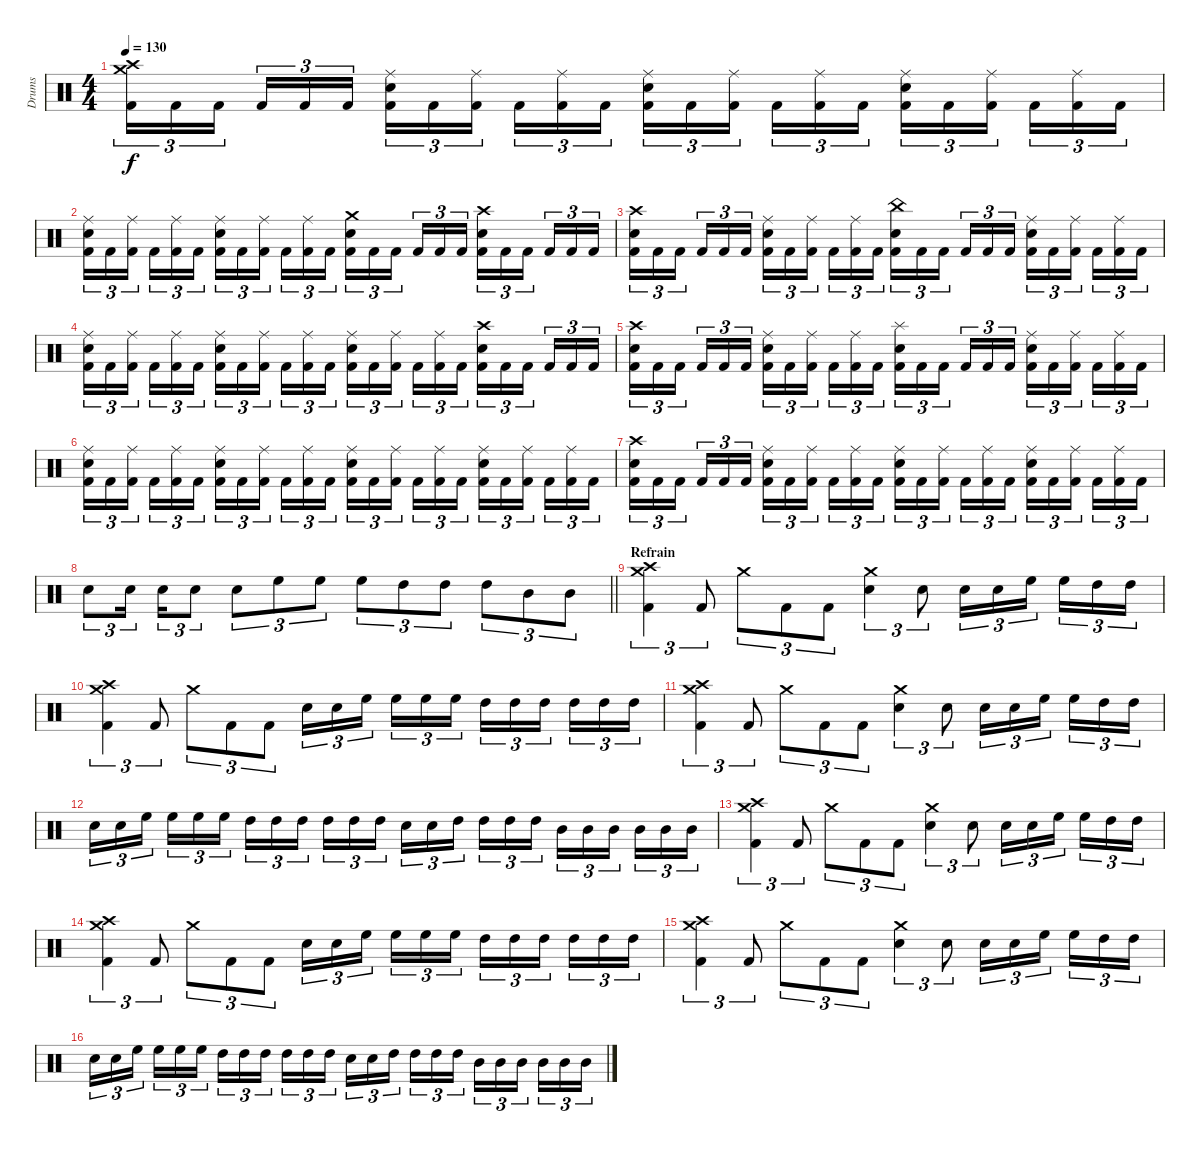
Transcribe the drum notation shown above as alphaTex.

\track ("Drums" "Drums") {instrument percussion}
\staff {score}
\articulation defaults
\ts (4 4)
\tempo 130
\clef neutral
\ks c
("Crash medium (hit)" "Crash high (hit)" "Kick (hit) 2").16{tu (3 2) dy f} "Kick (hit) 2".16{tu (3 2)} "Kick (hit) 2".16{tu (3 2) beam splitsecondary} "Kick (hit) 2".16{tu (3 2)} "Kick (hit) 2".16{tu (3 2)} "Kick (hit) 2".16{tu (3 2)} ("Ride (middle)" "Electric Snare (hit)" "Kick (hit) 2").16{tu (3 2)} "Kick (hit) 2".16{tu (3 2)} ("Ride (middle)" "Kick (hit) 2").16{tu (3 2) beam splitsecondary} "Kick (hit) 2".16{tu (3 2)} ("Ride (middle)" "Kick (hit) 2").16{tu (3 2)} "Kick (hit) 2".16{tu (3 2)} ("Ride (middle)" "Electric Snare (hit)" "Kick (hit) 2").16{tu (3 2)} "Kick (hit) 2".16{tu (3 2)} ("Ride (middle)" "Kick (hit) 2").16{tu (3 2) beam splitsecondary} "Kick (hit) 2".16{tu (3 2)} ("Ride (middle)" "Kick (hit) 2").16{tu (3 2)} "Kick (hit) 2".16{tu (3 2)} ("Ride (middle)" "Electric Snare (hit)" "Kick (hit) 2").16{tu (3 2)} "Kick (hit) 2".16{tu (3 2)} ("Ride (middle)" "Kick (hit) 2").16{tu (3 2) beam splitsecondary} "Kick (hit) 2".16{tu (3 2)} ("Ride (middle)" "Kick (hit) 2").16{tu (3 2)} "Kick (hit) 2".16{tu (3 2)} |
("Ride (middle)" "Electric Snare (hit)" "Kick (hit) 2").16{tu (3 2)} "Kick (hit) 2".16{tu (3 2)} ("Ride (middle)" "Kick (hit) 2").16{tu (3 2) beam splitsecondary} "Kick (hit) 2".16{tu (3 2)} ("Ride (middle)" "Kick (hit) 2").16{tu (3 2)} "Kick (hit) 2".16{tu (3 2)} ("Ride (middle)" "Electric Snare (hit)" "Kick (hit) 2").16{tu (3 2)} "Kick (hit) 2".16{tu (3 2)} ("Ride (middle)" "Kick (hit) 2").16{tu (3 2) beam splitsecondary} "Kick (hit) 2".16{tu (3 2)} ("Ride (middle)" "Kick (hit) 2").16{tu (3 2)} "Kick (hit) 2".16{tu (3 2)} ("Crash medium (hit)" "Electric Snare (hit)" "Kick (hit) 2").16{tu (3 2)} "Kick (hit) 2".16{tu (3 2)} "Kick (hit) 2".16{tu (3 2) beam splitsecondary} "Kick (hit) 2".16{tu (3 2)} "Kick (hit) 2".16{tu (3 2)} "Kick (hit) 2".16{tu (3 2)} ("Crash high (hit)" "Electric Snare (hit)" "Kick (hit) 2").16{tu (3 2)} "Kick (hit) 2".16{tu (3 2)} "Kick (hit) 2".16{tu (3 2) beam splitsecondary} "Kick (hit) 2".16{tu (3 2)} "Kick (hit) 2".16{tu (3 2)} "Kick (hit) 2".16{tu (3 2)} |
("Crash high (hit)" "Electric Snare (hit)" "Kick (hit) 2").16{tu (3 2)} "Kick (hit) 2".16{tu (3 2)} "Kick (hit) 2".16{tu (3 2) beam splitsecondary} "Kick (hit) 2".16{tu (3 2)} "Kick (hit) 2".16{tu (3 2)} "Kick (hit) 2".16{tu (3 2)} ("Ride (middle)" "Electric Snare (hit)" "Kick (hit) 2").16{tu (3 2)} "Kick (hit) 2".16{tu (3 2)} ("Ride (middle)" "Kick (hit) 2").16{tu (3 2) beam splitsecondary} "Kick (hit) 2".16{tu (3 2)} ("Ride (middle)" "Kick (hit) 2").16{tu (3 2)} "Kick (hit) 2".16{tu (3 2)} ("China (hit)" "Electric Snare (hit)" "Kick (hit) 2").16{tu (3 2)} "Kick (hit) 2".16{tu (3 2)} "Kick (hit) 2".16{tu (3 2) beam splitsecondary} "Kick (hit) 2".16{tu (3 2)} "Kick (hit) 2".16{tu (3 2)} "Kick (hit) 2".16{tu (3 2)} ("Ride (middle)" "Electric Snare (hit)" "Kick (hit) 2").16{tu (3 2)} "Kick (hit) 2".16{tu (3 2)} ("Ride (middle)" "Kick (hit) 2").16{tu (3 2) beam splitsecondary} "Kick (hit) 2".16{tu (3 2)} ("Ride (middle)" "Kick (hit) 2").16{tu (3 2)} "Kick (hit) 2".16{tu (3 2)} |
("Ride (middle)" "Electric Snare (hit)" "Kick (hit) 2").16{tu (3 2)} "Kick (hit) 2".16{tu (3 2)} ("Ride (middle)" "Kick (hit) 2").16{tu (3 2) beam splitsecondary} "Kick (hit) 2".16{tu (3 2)} ("Ride (middle)" "Kick (hit) 2").16{tu (3 2)} "Kick (hit) 2".16{tu (3 2)} ("Ride (middle)" "Electric Snare (hit)" "Kick (hit) 2").16{tu (3 2)} "Kick (hit) 2".16{tu (3 2)} ("Ride (middle)" "Kick (hit) 2").16{tu (3 2) beam splitsecondary} "Kick (hit) 2".16{tu (3 2)} ("Ride (middle)" "Kick (hit) 2").16{tu (3 2)} "Kick (hit) 2".16{tu (3 2)} ("Ride (middle)" "Electric Snare (hit)" "Kick (hit) 2").16{tu (3 2)} "Kick (hit) 2".16{tu (3 2)} ("Ride (middle)" "Kick (hit) 2").16{tu (3 2) beam splitsecondary} "Kick (hit) 2".16{tu (3 2)} ("Ride (middle)" "Kick (hit) 2").16{tu (3 2)} "Kick (hit) 2".16{tu (3 2)} ("Crash high (hit)" "Electric Snare (hit)" "Kick (hit) 2").16{tu (3 2)} "Kick (hit) 2".16{tu (3 2)} "Kick (hit) 2".16{tu (3 2) beam splitsecondary} "Kick (hit) 2".16{tu (3 2)} "Kick (hit) 2".16{tu (3 2)} "Kick (hit) 2".16{tu (3 2)} |
("Crash high (hit)" "Electric Snare (hit)" "Kick (hit) 2").16{tu (3 2)} "Kick (hit) 2".16{tu (3 2)} "Kick (hit) 2".16{tu (3 2) beam splitsecondary} "Kick (hit) 2".16{tu (3 2)} "Kick (hit) 2".16{tu (3 2)} "Kick (hit) 2".16{tu (3 2)} ("Ride (middle)" "Electric Snare (hit)" "Kick (hit) 2").16{tu (3 2)} "Kick (hit) 2".16{tu (3 2)} ("Ride (middle)" "Kick (hit) 2").16{tu (3 2) beam splitsecondary} "Kick (hit) 2".16{tu (3 2)} ("Ride (middle)" "Kick (hit) 2").16{tu (3 2)} "Kick (hit) 2".16{tu (3 2)} ("Splash (hit)" "Electric Snare (hit)" "Kick (hit) 2").16{tu (3 2)} "Kick (hit) 2".16{tu (3 2)} "Kick (hit) 2".16{tu (3 2) beam splitsecondary} "Kick (hit) 2".16{tu (3 2)} "Kick (hit) 2".16{tu (3 2)} "Kick (hit) 2".16{tu (3 2)} ("Ride (middle)" "Electric Snare (hit)" "Kick (hit) 2").16{tu (3 2)} "Kick (hit) 2".16{tu (3 2)} ("Ride (middle)" "Kick (hit) 2").16{tu (3 2) beam splitsecondary} "Kick (hit) 2".16{tu (3 2)} ("Ride (middle)" "Kick (hit) 2").16{tu (3 2)} "Kick (hit) 2".16{tu (3 2)} |
("Ride (middle)" "Electric Snare (hit)" "Kick (hit) 2").16{tu (3 2)} "Kick (hit) 2".16{tu (3 2)} ("Ride (middle)" "Kick (hit) 2").16{tu (3 2) beam splitsecondary} "Kick (hit) 2".16{tu (3 2)} ("Ride (middle)" "Kick (hit) 2").16{tu (3 2)} "Kick (hit) 2".16{tu (3 2)} ("Ride (middle)" "Electric Snare (hit)" "Kick (hit) 2").16{tu (3 2)} "Kick (hit) 2".16{tu (3 2)} ("Ride (middle)" "Kick (hit) 2").16{tu (3 2) beam splitsecondary} "Kick (hit) 2".16{tu (3 2)} ("Ride (middle)" "Kick (hit) 2").16{tu (3 2)} "Kick (hit) 2".16{tu (3 2)} ("Ride (middle)" "Electric Snare (hit)" "Kick (hit) 2").16{tu (3 2)} "Kick (hit) 2".16{tu (3 2)} ("Ride (middle)" "Kick (hit) 2").16{tu (3 2) beam splitsecondary} "Kick (hit) 2".16{tu (3 2)} ("Ride (middle)" "Kick (hit) 2").16{tu (3 2)} "Kick (hit) 2".16{tu (3 2)} ("Ride (middle)" "Electric Snare (hit)" "Kick (hit) 2").16{tu (3 2)} "Kick (hit) 2".16{tu (3 2)} ("Ride (middle)" "Kick (hit) 2").16{tu (3 2) beam splitsecondary} "Kick (hit) 2".16{tu (3 2)} ("Ride (middle)" "Kick (hit) 2").16{tu (3 2)} "Kick (hit) 2".16{tu (3 2)} |
("Crash high (hit)" "Electric Snare (hit)" "Kick (hit) 2").16{tu (3 2)} "Kick (hit) 2".16{tu (3 2)} "Kick (hit) 2".16{tu (3 2) beam splitsecondary} "Kick (hit) 2".16{tu (3 2)} "Kick (hit) 2".16{tu (3 2)} "Kick (hit) 2".16{tu (3 2)} ("Ride (middle)" "Electric Snare (hit)" "Kick (hit) 2").16{tu (3 2)} "Kick (hit) 2".16{tu (3 2)} ("Ride (middle)" "Kick (hit) 2").16{tu (3 2) beam splitsecondary} "Kick (hit) 2".16{tu (3 2)} ("Ride (middle)" "Kick (hit) 2").16{tu (3 2)} "Kick (hit) 2".16{tu (3 2)} ("Ride (middle)" "Electric Snare (hit)" "Kick (hit) 2").16{tu (3 2)} "Kick (hit) 2".16{tu (3 2)} ("Ride (middle)" "Kick (hit) 2").16{tu (3 2) beam splitsecondary} "Kick (hit) 2".16{tu (3 2)} ("Ride (middle)" "Kick (hit) 2").16{tu (3 2)} "Kick (hit) 2".16{tu (3 2)} ("Ride (middle)" "Electric Snare (hit)" "Kick (hit) 2").16{tu (3 2)} "Kick (hit) 2".16{tu (3 2)} ("Ride (middle)" "Kick (hit) 2").16{tu (3 2) beam splitsecondary} "Kick (hit) 2".16{tu (3 2)} ("Ride (middle)" "Kick (hit) 2").16{tu (3 2)} "Kick (hit) 2".16{tu (3 2)} |
\barLineRight lightlight "Electric Snare (hit)".8{tu (3 2)} "Electric Snare (hit)".16{tu (3 2) beam splitsecondary} "Electric Snare (hit)".16{tu (3 2)} "Electric Snare (hit)".8{tu (3 2)} "Electric Snare (hit)".8{tu (3 2)} "High Floor Tom (hit)".8{tu (3 2)} "High Floor Tom (hit)".8{tu (3 2)} "High Floor Tom (hit)".8{tu (3 2)} "High Tom (hit)".8{tu (3 2)} "High Tom (hit)".8{tu (3 2)} "High Tom (hit)".8{tu (3 2)} "Mid Tom (hit)".8{tu (3 2)} "Mid Tom (hit)".8{tu (3 2)}
|
\section ("" "Refrain")
("Crash medium (hit)" "Crash high (hit)" "Kick (hit) 2").4{tu (3 2)} "Kick (hit) 2".8{tu (3 2)} "Crash medium (hit)".8{tu (3 2)} "Kick (hit) 2".8{tu (3 2)} "Kick (hit) 2".8{tu (3 2)} ("Crash medium (hit)" "Electric Snare (hit)").4{tu (3 2)} "Electric Snare (hit)".8{tu (3 2)} "Electric Snare (hit)".16{tu (3 2)} "Electric Snare (hit)".16{tu (3 2)} "High Floor Tom (hit)".16{tu (3 2) beam splitsecondary} "High Floor Tom (hit)".16{tu (3 2)} "High Tom (hit)".16{tu (3 2)} "High Tom (hit)".16{tu (3 2)} |
("Crash medium (hit)" "Crash high (hit)" "Kick (hit) 2").4{tu (3 2)} "Kick (hit) 2".8{tu (3 2)} "Crash medium (hit)".8{tu (3 2)} "Kick (hit) 2".8{tu (3 2)} "Kick (hit) 2".8{tu (3 2)} "Electric Snare (hit)".16{tu (3 2)} "Electric Snare (hit)".16{tu (3 2)} "High Floor Tom (hit)".16{tu (3 2) beam splitsecondary} "High Floor Tom (hit)".16{tu (3 2)} "High Floor Tom (hit)".16{tu (3 2)} "High Floor Tom (hit)".16{tu (3 2)} "High Tom (hit)".16{tu (3 2)} "High Tom (hit)".16{tu (3 2)} "High Tom (hit)".16{tu (3 2) beam splitsecondary} "High Tom (hit)".16{tu (3 2)} "High Tom (hit)".16{tu (3 2)} "High Tom (hit)".16{tu (3 2)} |
("Crash medium (hit)" "Crash high (hit)" "Kick (hit) 2").4{tu (3 2)} "Kick (hit) 2".8{tu (3 2)} "Crash medium (hit)".8{tu (3 2)} "Kick (hit) 2".8{tu (3 2)} "Kick (hit) 2".8{tu (3 2)} ("Crash medium (hit)" "Electric Snare (hit)").4{tu (3 2)} "Electric Snare (hit)".8{tu (3 2)} "Electric Snare (hit)".16{tu (3 2)} "Electric Snare (hit)".16{tu (3 2)} "High Floor Tom (hit)".16{tu (3 2) beam splitsecondary} "High Floor Tom (hit)".16{tu (3 2)} "High Tom (hit)".16{tu (3 2)} "High Tom (hit)".16{tu (3 2)} |
"Electric Snare (hit)".16{tu (3 2)} "Electric Snare (hit)".16{tu (3 2)} "High Floor Tom (hit)".16{tu (3 2) beam splitsecondary} "High Floor Tom (hit)".16{tu (3 2)} "High Floor Tom (hit)".16{tu (3 2)} "High Floor Tom (hit)".16{tu (3 2)} "High Tom (hit)".16{tu (3 2)} "High Tom (hit)".16{tu (3 2)} "High Tom (hit)".16{tu (3 2) beam splitsecondary} "High Tom (hit)".16{tu (3 2)} "High Tom (hit)".16{tu (3 2)} "High Tom (hit)".16{tu (3 2)} "Electric Snare (hit)".16{tu (3 2)} "Electric Snare (hit)".16{tu (3 2)} "High Tom (hit)".16{tu (3 2) beam splitsecondary} "High Tom (hit)".16{tu (3 2)} "High Tom (hit)".16{tu (3 2)} "High Tom (hit)".16{tu (3 2)} "Mid Tom (hit)".16{tu (3 2)} "Mid Tom (hit)".16{tu (3 2)} "Mid Tom (hit)".16{tu (3 2) beam splitsecondary} "Mid Tom (hit)".16{tu (3 2)} "Mid Tom (hit)".16{tu (3 2)} "Mid Tom (hit)".16{tu (3 2)} |
("Crash medium (hit)" "Crash high (hit)" "Kick (hit) 2").4{tu (3 2)} "Kick (hit) 2".8{tu (3 2)} "Crash medium (hit)".8{tu (3 2)} "Kick (hit) 2".8{tu (3 2)} "Kick (hit) 2".8{tu (3 2)} ("Crash medium (hit)" "Electric Snare (hit)").4{tu (3 2)} "Electric Snare (hit)".8{tu (3 2)} "Electric Snare (hit)".16{tu (3 2)} "Electric Snare (hit)".16{tu (3 2)} "High Floor Tom (hit)".16{tu (3 2) beam splitsecondary} "High Floor Tom (hit)".16{tu (3 2)} "High Tom (hit)".16{tu (3 2)} "High Tom (hit)".16{tu (3 2)} |
("Crash medium (hit)" "Crash high (hit)" "Kick (hit) 2").4{tu (3 2)} "Kick (hit) 2".8{tu (3 2)} "Crash medium (hit)".8{tu (3 2)} "Kick (hit) 2".8{tu (3 2)} "Kick (hit) 2".8{tu (3 2)} "Electric Snare (hit)".16{tu (3 2)} "Electric Snare (hit)".16{tu (3 2)} "High Floor Tom (hit)".16{tu (3 2) beam splitsecondary} "High Floor Tom (hit)".16{tu (3 2)} "High Floor Tom (hit)".16{tu (3 2)} "High Floor Tom (hit)".16{tu (3 2)} "High Tom (hit)".16{tu (3 2)} "High Tom (hit)".16{tu (3 2)} "High Tom (hit)".16{tu (3 2) beam splitsecondary} "High Tom (hit)".16{tu (3 2)} "High Tom (hit)".16{tu (3 2)} "High Tom (hit)".16{tu (3 2)} |
("Crash medium (hit)" "Crash high (hit)" "Kick (hit) 2").4{tu (3 2)} "Kick (hit) 2".8{tu (3 2)} "Crash medium (hit)".8{tu (3 2)} "Kick (hit) 2".8{tu (3 2)} "Kick (hit) 2".8{tu (3 2)} ("Crash medium (hit)" "Electric Snare (hit)").4{tu (3 2)} "Electric Snare (hit)".8{tu (3 2)} "Electric Snare (hit)".16{tu (3 2)} "Electric Snare (hit)".16{tu (3 2)} "High Floor Tom (hit)".16{tu (3 2) beam splitsecondary} "High Floor Tom (hit)".16{tu (3 2)} "High Tom (hit)".16{tu (3 2)} "High Tom (hit)".16{tu (3 2)} |
"Electric Snare (hit)".16{tu (3 2)} "Electric Snare (hit)".16{tu (3 2)} "High Floor Tom (hit)".16{tu (3 2) beam splitsecondary} "High Floor Tom (hit)".16{tu (3 2)} "High Floor Tom (hit)".16{tu (3 2)} "High Floor Tom (hit)".16{tu (3 2)} "High Tom (hit)".16{tu (3 2)} "High Tom (hit)".16{tu (3 2)} "High Tom (hit)".16{tu (3 2) beam splitsecondary} "High Tom (hit)".16{tu (3 2)} "High Tom (hit)".16{tu (3 2)} "High Tom (hit)".16{tu (3 2)} "Electric Snare (hit)".16{tu (3 2)} "Electric Snare (hit)".16{tu (3 2)} "High Tom (hit)".16{tu (3 2) beam splitsecondary} "High Tom (hit)".16{tu (3 2)} "High Tom (hit)".16{tu (3 2)} "High Tom (hit)".16{tu (3 2)} "Mid Tom (hit)".16{tu (3 2)} "Mid Tom (hit)".16{tu (3 2)} "Mid Tom (hit)".16{tu (3 2) beam splitsecondary} "Mid Tom (hit)".16{tu (3 2)} "Mid Tom (hit)".16{tu (3 2)} "Mid Tom (hit)".16{tu (3 2)}
